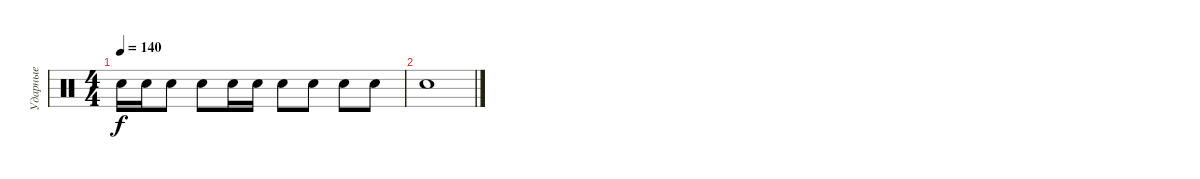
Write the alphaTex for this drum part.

\track ("Ударные" "Ударные") {instrument percussion}
\staff {score}
\articulation defaults
\ts (4 4)
\tempo 140
\clef neutral
\ks c "Electric Snare (hit)".16{dy f} "Electric Snare (hit)".16 "Electric Snare (hit)".8 "Electric Snare (hit)".8 "Electric Snare (hit)".16 "Electric Snare (hit)".16 "Electric Snare (hit)".8 "Electric Snare (hit)".8 "Electric Snare (hit)".8 "Electric Snare (hit)".8
|
"Electric Snare (hit)".1
